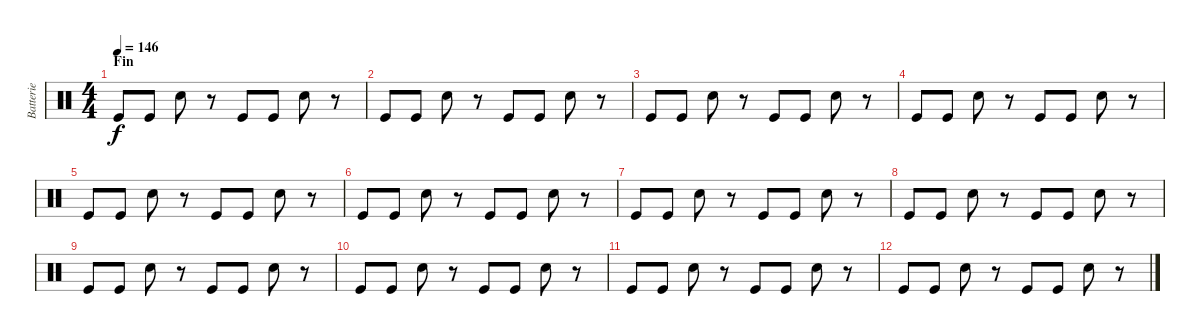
\track ("Batterie" "Batterie") {instrument percussion}
\staff {score}
\articulation defaults
\ts (4 4)
\section ("" "Fin")
\tempo 146
\clef neutral
\ks c "Kick (hit)".8{dy f} "Kick (hit)".8 "Snare (hit) 2".8
r.8 "Kick (hit)".8 "Kick (hit)".8 "Snare (hit) 2".8 r.8 |
"Kick (hit)".8 "Kick (hit)".8 "Snare (hit) 2".8 r.8 "Kick (hit)".8 "Kick (hit)".8 "Snare (hit) 2".8 r.8 |
"Kick (hit)".8 "Kick (hit)".8 "Snare (hit) 2".8 r.8 "Kick (hit)".8 "Kick (hit)".8 "Snare (hit) 2".8 r.8 |
"Kick (hit)".8 "Kick (hit)".8 "Snare (hit) 2".8 r.8 "Kick (hit)".8 "Kick (hit)".8 "Snare (hit) 2".8 r.8 |
"Kick (hit)".8 "Kick (hit)".8 "Snare (hit) 2".8 r.8 "Kick (hit)".8 "Kick (hit)".8 "Snare (hit) 2".8 r.8 |
"Kick (hit)".8 "Kick (hit)".8 "Snare (hit) 2".8 r.8 "Kick (hit)".8 "Kick (hit)".8 "Snare (hit) 2".8 r.8 |
"Kick (hit)".8 "Kick (hit)".8 "Snare (hit) 2".8 r.8 "Kick (hit)".8 "Kick (hit)".8 "Snare (hit) 2".8 r.8 |
"Kick (hit)".8 "Kick (hit)".8 "Snare (hit) 2".8 r.8 "Kick (hit)".8 "Kick (hit)".8 "Snare (hit) 2".8 r.8 |
"Kick (hit)".8 "Kick (hit)".8 "Snare (hit) 2".8 r.8 "Kick (hit)".8 "Kick (hit)".8 "Snare (hit) 2".8 r.8 |
"Kick (hit)".8 "Kick (hit)".8 "Snare (hit) 2".8 r.8 "Kick (hit)".8 "Kick (hit)".8 "Snare (hit) 2".8 r.8 |
"Kick (hit)".8 "Kick (hit)".8 "Snare (hit) 2".8 r.8 "Kick (hit)".8 "Kick (hit)".8 "Snare (hit) 2".8 r.8 |
"Kick (hit)".8 "Kick (hit)".8 "Snare (hit) 2".8 r.8 "Kick (hit)".8 "Kick (hit)".8 "Snare (hit) 2".8 r.8
